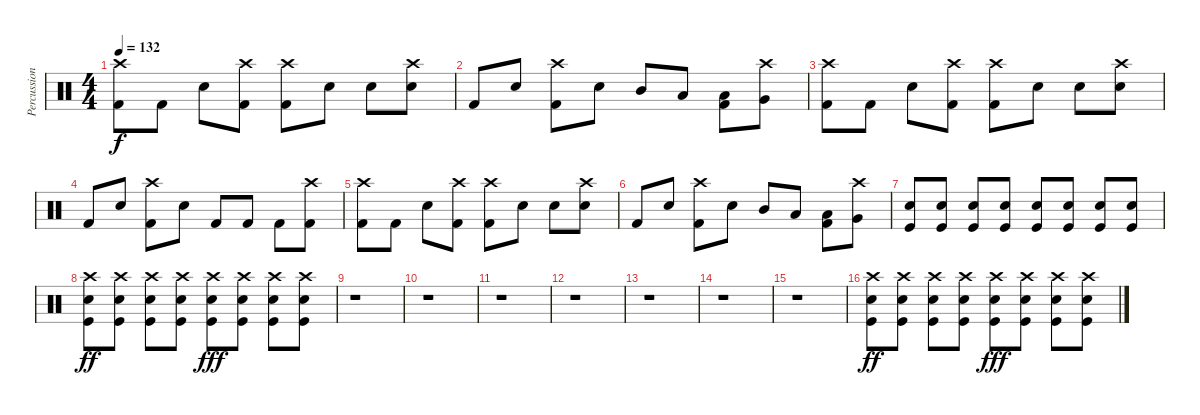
\track ("Percussion" "Percussion") {instrument percussion}
\staff {score}
\articulation defaults
\ts (4 4)
\tempo 132
\clef neutral
\ks c
("Crash high (hit)" "Kick (hit) 2").8{dy f} "Kick (hit) 2".8 "Electric Snare (hit)".8 ("Crash high (hit)" "Kick (hit) 2").8 ("Crash high (hit)" "Kick (hit) 2").8 "Electric Snare (hit)".8 "Electric Snare (hit)".8 ("Crash high (hit)" "Electric Snare (hit)").8 |
"Kick (hit) 2".8 "Electric Snare (hit)".8 ("Crash high (hit)" "Kick (hit) 2").8 "Electric Snare (hit)".8 "Mid Tom (hit)".8 "Low Tom (hit)".8 ("Kick (hit) 2" "Low Tom (hit)").8 ("Crash high (hit)" "Very Low Tom (hit)").8 |
("Crash high (hit)" "Kick (hit) 2").8 "Kick (hit) 2".8 "Electric Snare (hit)".8 ("Crash high (hit)" "Kick (hit) 2").8 ("Crash high (hit)" "Kick (hit) 2").8 "Electric Snare (hit)".8 "Electric Snare (hit)".8 ("Crash high (hit)" "Electric Snare (hit)").8 |
"Kick (hit) 2".8 "Electric Snare (hit)".8 ("Crash high (hit)" "Kick (hit) 2").8 "Electric Snare (hit)".8 "Kick (hit) 2".8 "Kick (hit) 2".8 "Kick (hit) 2".8 ("Crash high (hit)" "Kick (hit) 2").8 |
("Crash high (hit)" "Kick (hit) 2").8 "Kick (hit) 2".8 "Electric Snare (hit)".8 ("Crash high (hit)" "Kick (hit) 2").8 ("Crash high (hit)" "Kick (hit) 2").8 "Electric Snare (hit)".8 "Electric Snare (hit)".8 ("Crash high (hit)" "Electric Snare (hit)").8 |
"Kick (hit) 2".8 "Electric Snare (hit)".8 ("Crash high (hit)" "Kick (hit) 2").8 "Electric Snare (hit)".8 "Mid Tom (hit)".8 "Low Tom (hit)".8 ("Kick (hit) 2" "Low Tom (hit)").8 ("Crash high (hit)" "Very Low Tom (hit)").8 |
("Kick (hit)" "Electric Snare (hit)").8 ("Kick (hit)" "Electric Snare (hit)").8 ("Kick (hit)" "Electric Snare (hit)").8 ("Kick (hit)" "Electric Snare (hit)").8 ("Kick (hit)" "Electric Snare (hit)").8 ("Kick (hit)" "Electric Snare (hit)").8 ("Kick (hit)" "Electric Snare (hit)").8 ("Kick (hit)" "Electric Snare (hit)").8 |
("Kick (hit)" "Electric Snare (hit)" "Crash high (hit)").8{dy ff} ("Kick (hit)" "Electric Snare (hit)" "Crash high (hit)").8 ("Kick (hit)" "Electric Snare (hit)" "Crash high (hit)").8 ("Kick (hit)" "Electric Snare (hit)" "Crash high (hit)").8 ("Kick (hit)" "Electric Snare (hit)" "Crash high (hit)").8{dy fff} ("Kick (hit)" "Electric Snare (hit)" "Crash high (hit)").8 ("Kick (hit)" "Electric Snare (hit)" "Crash high (hit)").8 ("Kick (hit)" "Electric Snare (hit)" "Crash high (hit)").8 |
r.1 |
r.1 |
r.1 |
r.1 |
r.1 |
r.1 |
r.1 |
("Kick (hit)" "Electric Snare (hit)" "Crash high (hit)").8{dy ff} ("Kick (hit)" "Electric Snare (hit)" "Crash high (hit)").8 ("Kick (hit)" "Electric Snare (hit)" "Crash high (hit)").8 ("Kick (hit)" "Electric Snare (hit)" "Crash high (hit)").8 ("Kick (hit)" "Electric Snare (hit)" "Crash high (hit)").8{dy fff} ("Kick (hit)" "Electric Snare (hit)" "Crash high (hit)").8 ("Kick (hit)" "Electric Snare (hit)" "Crash high (hit)").8 ("Kick (hit)" "Electric Snare (hit)" "Crash high (hit)").8
